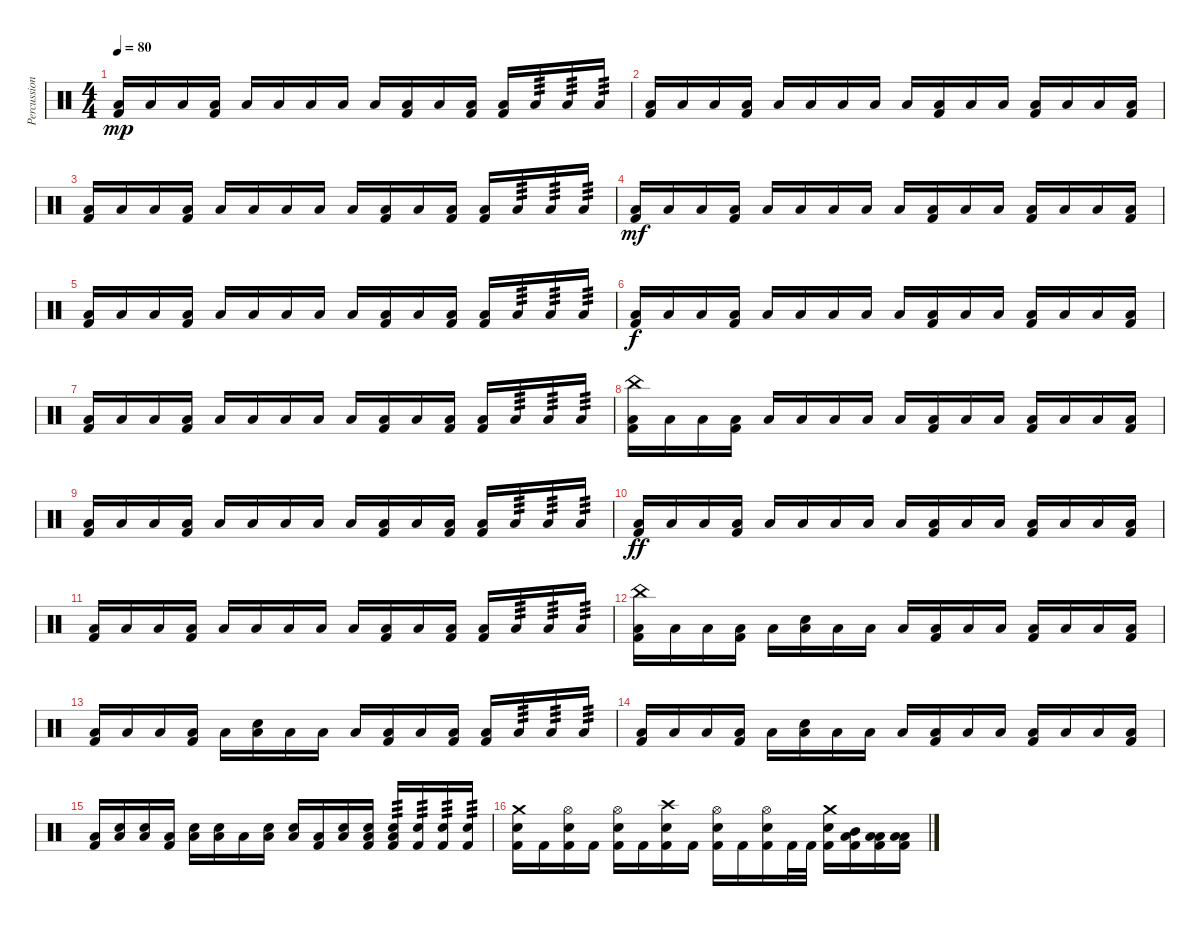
\track ("Percussion" "Percussion") {instrument percussion}
\staff {score}
\articulation defaults
\ts (4 4)
\tempo 80
\clef neutral
\ks c
("Low Floor Tom (hit)" "Kick (hit) 2").16{dy mp} "Low Floor Tom (hit)".16 "Low Floor Tom (hit)".16 ("Low Floor Tom (hit)" "Kick (hit) 2").16 "Low Floor Tom (hit)".16 "Low Floor Tom (hit)".16 "Low Floor Tom (hit)".16 "Low Floor Tom (hit)".16 "Low Floor Tom (hit)".16 ("Low Floor Tom (hit)" "Kick (hit) 2").16 "Low Floor Tom (hit)".16 ("Low Floor Tom (hit)" "Kick (hit) 2").16 ("Low Floor Tom (hit)" "Kick (hit) 2").16 "Low Floor Tom (hit)".16{tp 3} "Low Floor Tom (hit)".16{tp 3} "Low Floor Tom (hit)".16{tp 3} |
("Low Floor Tom (hit)" "Kick (hit) 2").16 "Low Floor Tom (hit)".16 "Low Floor Tom (hit)".16 ("Low Floor Tom (hit)" "Kick (hit) 2").16 "Low Floor Tom (hit)".16 "Low Floor Tom (hit)".16 "Low Floor Tom (hit)".16 "Low Floor Tom (hit)".16 "Low Floor Tom (hit)".16 ("Low Floor Tom (hit)" "Kick (hit) 2").16 "Low Floor Tom (hit)".16 "Low Floor Tom (hit)".16 ("Low Floor Tom (hit)" "Kick (hit) 2").16 "Low Floor Tom (hit)".16 "Low Floor Tom (hit)".16 ("Low Floor Tom (hit)" "Kick (hit) 2").16 |
("Low Floor Tom (hit)" "Kick (hit) 2").16 "Low Floor Tom (hit)".16 "Low Floor Tom (hit)".16 ("Low Floor Tom (hit)" "Kick (hit) 2").16 "Low Floor Tom (hit)".16 "Low Floor Tom (hit)".16 "Low Floor Tom (hit)".16 "Low Floor Tom (hit)".16 "Low Floor Tom (hit)".16 ("Low Floor Tom (hit)" "Kick (hit) 2").16 "Low Floor Tom (hit)".16 ("Low Floor Tom (hit)" "Kick (hit) 2").16 ("Low Floor Tom (hit)" "Kick (hit) 2").16 "Low Floor Tom (hit)".16{tp 3} "Low Floor Tom (hit)".16{tp 3} "Low Floor Tom (hit)".16{tp 3} |
("Low Floor Tom (hit)" "Kick (hit) 2").16{dy mf} "Low Floor Tom (hit)".16 "Low Floor Tom (hit)".16 ("Low Floor Tom (hit)" "Kick (hit) 2").16 "Low Floor Tom (hit)".16 "Low Floor Tom (hit)".16 "Low Floor Tom (hit)".16 "Low Floor Tom (hit)".16 "Low Floor Tom (hit)".16 ("Low Floor Tom (hit)" "Kick (hit) 2").16 "Low Floor Tom (hit)".16 "Low Floor Tom (hit)".16 ("Low Floor Tom (hit)" "Kick (hit) 2").16 "Low Floor Tom (hit)".16 "Low Floor Tom (hit)".16 ("Low Floor Tom (hit)" "Kick (hit) 2").16 |
("Low Floor Tom (hit)" "Kick (hit) 2").16 "Low Floor Tom (hit)".16 "Low Floor Tom (hit)".16 ("Low Floor Tom (hit)" "Kick (hit) 2").16 "Low Floor Tom (hit)".16 "Low Floor Tom (hit)".16 "Low Floor Tom (hit)".16 "Low Floor Tom (hit)".16 "Low Floor Tom (hit)".16 ("Low Floor Tom (hit)" "Kick (hit) 2").16 "Low Floor Tom (hit)".16 ("Low Floor Tom (hit)" "Kick (hit) 2").16 ("Low Floor Tom (hit)" "Kick (hit) 2").16 "Low Floor Tom (hit)".16{tp 3} "Low Floor Tom (hit)".16{tp 3} "Low Floor Tom (hit)".16{tp 3} |
("Low Floor Tom (hit)" "Kick (hit) 2").16{dy f} "Low Floor Tom (hit)".16 "Low Floor Tom (hit)".16 ("Low Floor Tom (hit)" "Kick (hit) 2").16 "Low Floor Tom (hit)".16 "Low Floor Tom (hit)".16 "Low Floor Tom (hit)".16 "Low Floor Tom (hit)".16 "Low Floor Tom (hit)".16 ("Low Floor Tom (hit)" "Kick (hit) 2").16 "Low Floor Tom (hit)".16 "Low Floor Tom (hit)".16 ("Low Floor Tom (hit)" "Kick (hit) 2").16 "Low Floor Tom (hit)".16 "Low Floor Tom (hit)".16 ("Low Floor Tom (hit)" "Kick (hit) 2").16 |
("Low Floor Tom (hit)" "Kick (hit) 2").16 "Low Floor Tom (hit)".16 "Low Floor Tom (hit)".16 ("Low Floor Tom (hit)" "Kick (hit) 2").16 "Low Floor Tom (hit)".16 "Low Floor Tom (hit)".16 "Low Floor Tom (hit)".16 "Low Floor Tom (hit)".16 "Low Floor Tom (hit)".16 ("Low Floor Tom (hit)" "Kick (hit) 2").16 "Low Floor Tom (hit)".16 ("Low Floor Tom (hit)" "Kick (hit) 2").16 ("Low Floor Tom (hit)" "Kick (hit) 2").16 "Low Floor Tom (hit)".16{tp 3} "Low Floor Tom (hit)".16{tp 3} "Low Floor Tom (hit)".16{tp 3} |
("China (hit)" "Low Floor Tom (hit)" "Kick (hit) 2").16 "Low Floor Tom (hit)".16 "Low Floor Tom (hit)".16 ("Low Floor Tom (hit)" "Kick (hit) 2").16 "Low Floor Tom (hit)".16 "Low Floor Tom (hit)".16 "Low Floor Tom (hit)".16 "Low Floor Tom (hit)".16 "Low Floor Tom (hit)".16 ("Low Floor Tom (hit)" "Kick (hit) 2").16 "Low Floor Tom (hit)".16 "Low Floor Tom (hit)".16 ("Low Floor Tom (hit)" "Kick (hit) 2").16 "Low Floor Tom (hit)".16 "Low Floor Tom (hit)".16 ("Low Floor Tom (hit)" "Kick (hit) 2").16 |
("Low Floor Tom (hit)" "Kick (hit) 2").16 "Low Floor Tom (hit)".16 "Low Floor Tom (hit)".16 ("Low Floor Tom (hit)" "Kick (hit) 2").16 "Low Floor Tom (hit)".16 "Low Floor Tom (hit)".16 "Low Floor Tom (hit)".16 "Low Floor Tom (hit)".16 "Low Floor Tom (hit)".16 ("Low Floor Tom (hit)" "Kick (hit) 2").16 "Low Floor Tom (hit)".16 ("Low Floor Tom (hit)" "Kick (hit) 2").16 ("Low Floor Tom (hit)" "Kick (hit) 2").16 "Low Floor Tom (hit)".16{tp 3} "Low Floor Tom (hit)".16{tp 3} "Low Floor Tom (hit)".16{tp 3} |
("Low Floor Tom (hit)" "Kick (hit) 2").16{dy ff} "Low Floor Tom (hit)".16 "Low Floor Tom (hit)".16 ("Low Floor Tom (hit)" "Kick (hit) 2").16 "Low Floor Tom (hit)".16 "Low Floor Tom (hit)".16 "Low Floor Tom (hit)".16 "Low Floor Tom (hit)".16 "Low Floor Tom (hit)".16 ("Low Floor Tom (hit)" "Kick (hit) 2").16 "Low Floor Tom (hit)".16 "Low Floor Tom (hit)".16 ("Low Floor Tom (hit)" "Kick (hit) 2").16 "Low Floor Tom (hit)".16 "Low Floor Tom (hit)".16 ("Low Floor Tom (hit)" "Kick (hit) 2").16 |
("Low Floor Tom (hit)" "Kick (hit) 2").16 "Low Floor Tom (hit)".16 "Low Floor Tom (hit)".16 ("Low Floor Tom (hit)" "Kick (hit) 2").16 "Low Floor Tom (hit)".16 "Low Floor Tom (hit)".16 "Low Floor Tom (hit)".16 "Low Floor Tom (hit)".16 "Low Floor Tom (hit)".16 ("Low Floor Tom (hit)" "Kick (hit) 2").16 "Low Floor Tom (hit)".16 ("Low Floor Tom (hit)" "Kick (hit) 2").16 ("Low Floor Tom (hit)" "Kick (hit) 2").16 "Low Floor Tom (hit)".16{tp 3} "Low Floor Tom (hit)".16{tp 3} "Low Floor Tom (hit)".16{tp 3} |
("China (hit)" "Low Floor Tom (hit)" "Kick (hit) 2").16 "Low Floor Tom (hit)".16 "Low Floor Tom (hit)".16 ("Low Floor Tom (hit)" "Kick (hit) 2").16 "Low Floor Tom (hit)".16 ("Snare (hit) 2" "Low Floor Tom (hit)").16 "Low Floor Tom (hit)".16 "Low Floor Tom (hit)".16 "Low Floor Tom (hit)".16 ("Low Floor Tom (hit)" "Kick (hit) 2").16 "Low Floor Tom (hit)".16 "Low Floor Tom (hit)".16 ("Low Floor Tom (hit)" "Kick (hit) 2").16 "Low Floor Tom (hit)".16 "Low Floor Tom (hit)".16 ("Low Floor Tom (hit)" "Kick (hit) 2").16 |
("Low Floor Tom (hit)" "Kick (hit) 2").16 "Low Floor Tom (hit)".16 "Low Floor Tom (hit)".16 ("Low Floor Tom (hit)" "Kick (hit) 2").16 "Low Floor Tom (hit)".16 ("Snare (hit) 2" "Low Floor Tom (hit)").16 "Low Floor Tom (hit)".16 "Low Floor Tom (hit)".16 "Low Floor Tom (hit)".16 ("Low Floor Tom (hit)" "Kick (hit) 2").16 "Low Floor Tom (hit)".16 ("Low Floor Tom (hit)" "Kick (hit) 2").16 ("Low Floor Tom (hit)" "Kick (hit) 2").16 "Low Floor Tom (hit)".16{tp 3} "Low Floor Tom (hit)".16{tp 3} "Low Floor Tom (hit)".16{tp 3} |
("Low Floor Tom (hit)" "Kick (hit) 2").16 "Low Floor Tom (hit)".16 "Low Floor Tom (hit)".16 ("Low Floor Tom (hit)" "Kick (hit) 2").16 "Low Floor Tom (hit)".16 ("Snare (hit) 2" "Low Floor Tom (hit)").16 "Low Floor Tom (hit)".16 "Low Floor Tom (hit)".16 "Low Floor Tom (hit)".16 ("Low Floor Tom (hit)" "Kick (hit) 2").16 "Low Floor Tom (hit)".16 "Low Floor Tom (hit)".16 ("Low Floor Tom (hit)" "Kick (hit) 2").16 "Low Floor Tom (hit)".16 "Low Floor Tom (hit)".16 ("Low Floor Tom (hit)" "Kick (hit) 2").16 |
("Low Floor Tom (hit)" "Kick (hit) 2").16 ("Snare (hit) 2" "Low Floor Tom (hit)").16 ("Snare (hit) 2" "Low Floor Tom (hit)").16 ("Low Floor Tom (hit)" "Kick (hit) 2").16 ("Snare (hit) 2" "Low Floor Tom (hit)").16 ("Snare (hit) 2" "Low Floor Tom (hit)").16 "Low Floor Tom (hit)".16 ("Snare (hit) 2" "Low Floor Tom (hit)").16 ("Snare (hit) 2" "Low Floor Tom (hit)").16 ("Low Floor Tom (hit)" "Kick (hit) 2").16 ("Snare (hit) 2" "Low Floor Tom (hit)").16 ("Snare (hit) 2" "Low Floor Tom (hit)" "Kick (hit) 2").16 ("Snare (hit) 2" "Low Floor Tom (hit)" "Kick (hit) 2").16{tp 3} ("Snare (hit) 2" "Kick (hit) 2").16{tp 3} ("Snare (hit) 2" "Kick (hit) 2").16{tp 3} ("Snare (hit) 2" "Kick (hit) 2").16{tp 3} |
("Crash medium (hit)" "Snare (hit) 2" "Kick (hit) 2").16 "Kick (hit) 2".16 ("Hi-Hat (open)" "Snare (hit) 2" "Kick (hit) 2").16 "Kick (hit) 2".16 ("Hi-Hat (open)" "Snare (hit) 2" "Kick (hit) 2").16 "Kick (hit) 2".16 ("Crash high (hit)" "Snare (hit) 2" "Kick (hit) 2").16 "Kick (hit) 2".16 ("Hi-Hat (open)" "Snare (hit) 2" "Kick (hit) 2").16 "Kick (hit) 2".16 ("Hi-Hat (open)" "Snare (hit) 2" "Kick (hit) 2").16 "Kick (hit) 2".32 "Kick (hit) 2".32 ("Crash medium (hit)" "Snare (hit) 2" "Kick (hit) 2").16 ("Mid Tom (hit)" "Low Tom (hit)" "Kick (hit) 2").16 ("Low Tom (hit)" "Low Floor Tom (hit)" "Kick (hit) 2").16 ("Low Tom (hit)" "Low Floor Tom (hit)" "Kick (hit) 2").16
